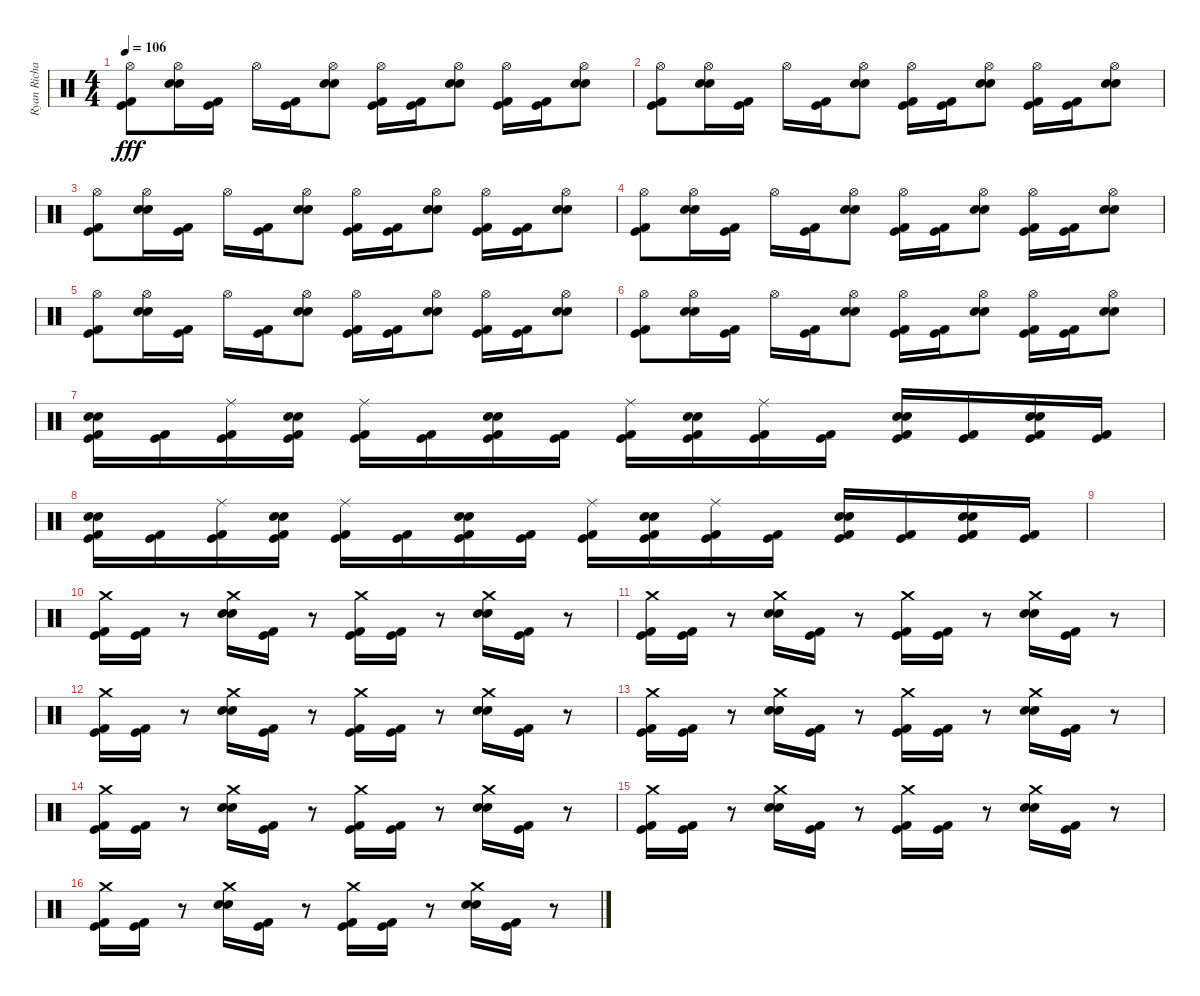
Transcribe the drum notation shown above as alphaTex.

\track ("Ryan Richards" "Ryan Richa") {instrument percussion}
\staff {score}
\articulation defaults
\ts (4 4)
\tempo 106
\clef neutral
\ks c
("Kick (hit)" "Hi-Hat (open)" "Kick (hit) 2").8{dy fff} ("Hi-Hat (open)" "Snare (hit) 2" "Electric Snare (hit)").16 ("Kick (hit)" "Kick (hit) 2").16 "Hi-Hat (open)".16 ("Kick (hit)" "Kick (hit) 2").16 ("Hi-Hat (open)" "Snare (hit) 2" "Electric Snare (hit)").8 ("Kick (hit)" "Hi-Hat (open)" "Kick (hit) 2").16 ("Kick (hit)" "Kick (hit) 2").16 ("Hi-Hat (open)" "Snare (hit) 2" "Electric Snare (hit)").8 ("Kick (hit)" "Hi-Hat (open)" "Kick (hit) 2").16 ("Kick (hit)" "Kick (hit) 2").16 ("Hi-Hat (open)" "Snare (hit) 2" "Electric Snare (hit)").8 |
("Kick (hit)" "Hi-Hat (open)" "Kick (hit) 2").8 ("Hi-Hat (open)" "Snare (hit) 2" "Electric Snare (hit)").16 ("Kick (hit)" "Kick (hit) 2").16 "Hi-Hat (open)".16 ("Kick (hit)" "Kick (hit) 2").16 ("Hi-Hat (open)" "Snare (hit) 2" "Electric Snare (hit)").8 ("Kick (hit)" "Hi-Hat (open)" "Kick (hit) 2").16 ("Kick (hit)" "Kick (hit) 2").16 ("Hi-Hat (open)" "Snare (hit) 2" "Electric Snare (hit)").8 ("Kick (hit)" "Hi-Hat (open)" "Kick (hit) 2").16 ("Kick (hit)" "Kick (hit) 2").16 ("Hi-Hat (open)" "Snare (hit) 2" "Electric Snare (hit)").8 |
("Kick (hit)" "Hi-Hat (open)" "Kick (hit) 2").8 ("Hi-Hat (open)" "Snare (hit) 2" "Electric Snare (hit)").16 ("Kick (hit)" "Kick (hit) 2").16 "Hi-Hat (open)".16 ("Kick (hit)" "Kick (hit) 2").16 ("Hi-Hat (open)" "Snare (hit) 2" "Electric Snare (hit)").8 ("Kick (hit)" "Hi-Hat (open)" "Kick (hit) 2").16 ("Kick (hit)" "Kick (hit) 2").16 ("Hi-Hat (open)" "Snare (hit) 2" "Electric Snare (hit)").8 ("Kick (hit)" "Hi-Hat (open)" "Kick (hit) 2").16 ("Kick (hit)" "Kick (hit) 2").16 ("Hi-Hat (open)" "Snare (hit) 2" "Electric Snare (hit)").8 |
("Kick (hit)" "Hi-Hat (open)" "Kick (hit) 2").8 ("Hi-Hat (open)" "Snare (hit) 2" "Electric Snare (hit)").16 ("Kick (hit)" "Kick (hit) 2").16 "Hi-Hat (open)".16 ("Kick (hit)" "Kick (hit) 2").16 ("Hi-Hat (open)" "Snare (hit) 2" "Electric Snare (hit)").8 ("Kick (hit)" "Hi-Hat (open)" "Kick (hit) 2").16 ("Kick (hit)" "Kick (hit) 2").16 ("Hi-Hat (open)" "Snare (hit) 2" "Electric Snare (hit)").8 ("Kick (hit)" "Hi-Hat (open)" "Kick (hit) 2").16 ("Kick (hit)" "Kick (hit) 2").16 ("Hi-Hat (open)" "Snare (hit) 2" "Electric Snare (hit)").8 |
("Kick (hit)" "Hi-Hat (open)" "Kick (hit) 2").8 ("Hi-Hat (open)" "Snare (hit) 2" "Electric Snare (hit)").16 ("Kick (hit)" "Kick (hit) 2").16 "Hi-Hat (open)".16 ("Kick (hit)" "Kick (hit) 2").16 ("Hi-Hat (open)" "Snare (hit) 2" "Electric Snare (hit)").8 ("Kick (hit)" "Hi-Hat (open)" "Kick (hit) 2").16 ("Kick (hit)" "Kick (hit) 2").16 ("Hi-Hat (open)" "Snare (hit) 2" "Electric Snare (hit)").8 ("Kick (hit)" "Hi-Hat (open)" "Kick (hit) 2").16 ("Kick (hit)" "Kick (hit) 2").16 ("Hi-Hat (open)" "Snare (hit) 2" "Electric Snare (hit)").8 |
("Kick (hit)" "Hi-Hat (open)" "Kick (hit) 2").8 ("Hi-Hat (open)" "Snare (hit) 2" "Electric Snare (hit)").16 ("Kick (hit)" "Kick (hit) 2").16 "Hi-Hat (open)".16 ("Kick (hit)" "Kick (hit) 2").16 ("Hi-Hat (open)" "Snare (hit) 2" "Electric Snare (hit)").8 ("Kick (hit)" "Hi-Hat (open)" "Kick (hit) 2").16 ("Kick (hit)" "Kick (hit) 2").16 ("Hi-Hat (open)" "Snare (hit) 2" "Electric Snare (hit)").8 ("Kick (hit)" "Hi-Hat (open)" "Kick (hit) 2").16 ("Kick (hit)" "Kick (hit) 2").16 ("Hi-Hat (open)" "Snare (hit) 2" "Electric Snare (hit)").8 |
("Kick (hit)" "Snare (hit) 2" "Electric Snare (hit)" "Kick (hit) 2").16 ("Kick (hit)" "Kick (hit) 2").16 ("Kick (hit)" "Ride (middle)" "Kick (hit) 2").16 ("Kick (hit)" "Snare (hit) 2" "Electric Snare (hit)" "Kick (hit) 2").16 ("Kick (hit)" "Ride (middle)" "Kick (hit) 2").16 ("Kick (hit)" "Kick (hit) 2").16 ("Kick (hit)" "Snare (hit) 2" "Electric Snare (hit)" "Kick (hit) 2").16 ("Kick (hit)" "Kick (hit) 2").16 ("Kick (hit)" "Ride (middle)" "Kick (hit) 2").16 ("Kick (hit)" "Snare (hit) 2" "Electric Snare (hit)" "Kick (hit) 2").16 ("Kick (hit)" "Ride (middle)" "Kick (hit) 2").16 ("Kick (hit)" "Kick (hit) 2").16 ("Kick (hit)" "Snare (hit) 2" "Electric Snare (hit)" "Kick (hit) 2").16 ("Kick (hit)" "Kick (hit) 2").16 ("Kick (hit)" "Snare (hit) 2" "Electric Snare (hit)" "Kick (hit) 2").16 ("Kick (hit)" "Kick (hit) 2").16 |
("Kick (hit)" "Snare (hit) 2" "Electric Snare (hit)" "Kick (hit) 2").16 ("Kick (hit)" "Kick (hit) 2").16 ("Kick (hit)" "Ride (middle)" "Kick (hit) 2").16 ("Kick (hit)" "Snare (hit) 2" "Electric Snare (hit)" "Kick (hit) 2").16 ("Kick (hit)" "Ride (middle)" "Kick (hit) 2").16 ("Kick (hit)" "Kick (hit) 2").16 ("Kick (hit)" "Snare (hit) 2" "Electric Snare (hit)" "Kick (hit) 2").16 ("Kick (hit)" "Kick (hit) 2").16 ("Kick (hit)" "Ride (middle)" "Kick (hit) 2").16 ("Kick (hit)" "Snare (hit) 2" "Electric Snare (hit)" "Kick (hit) 2").16 ("Kick (hit)" "Ride (middle)" "Kick (hit) 2").16 ("Kick (hit)" "Kick (hit) 2").16 ("Kick (hit)" "Snare (hit) 2" "Electric Snare (hit)" "Kick (hit) 2").16 ("Kick (hit)" "Kick (hit) 2").16 ("Kick (hit)" "Snare (hit) 2" "Electric Snare (hit)" "Kick (hit) 2").16 ("Kick (hit)" "Kick (hit) 2").16 |
|
("Kick (hit)" "Crash medium (hit)" "Kick (hit) 2").16 ("Kick (hit)" "Kick (hit) 2").16 r.8 ("Crash medium (hit)" "Snare (hit) 2" "Electric Snare (hit)").16 ("Kick (hit)" "Kick (hit) 2").16 r.8 ("Kick (hit)" "Crash medium (hit)" "Kick (hit) 2").16 ("Kick (hit)" "Kick (hit) 2").16 r.8 ("Crash medium (hit)" "Snare (hit) 2" "Electric Snare (hit)").16 ("Kick (hit)" "Kick (hit) 2").16 r.8 |
("Kick (hit)" "Crash medium (hit)" "Kick (hit) 2").16 ("Kick (hit)" "Kick (hit) 2").16 r.8 ("Crash medium (hit)" "Snare (hit) 2" "Electric Snare (hit)").16 ("Kick (hit)" "Kick (hit) 2").16 r.8 ("Kick (hit)" "Crash medium (hit)" "Kick (hit) 2").16 ("Kick (hit)" "Kick (hit) 2").16 r.8 ("Crash medium (hit)" "Snare (hit) 2" "Electric Snare (hit)").16 ("Kick (hit)" "Kick (hit) 2").16 r.8 |
("Kick (hit)" "Crash medium (hit)" "Kick (hit) 2").16 ("Kick (hit)" "Kick (hit) 2").16 r.8 ("Crash medium (hit)" "Snare (hit) 2" "Electric Snare (hit)").16 ("Kick (hit)" "Kick (hit) 2").16 r.8 ("Kick (hit)" "Crash medium (hit)" "Kick (hit) 2").16 ("Kick (hit)" "Kick (hit) 2").16 r.8 ("Crash medium (hit)" "Snare (hit) 2" "Electric Snare (hit)").16 ("Kick (hit)" "Kick (hit) 2").16 r.8 |
("Kick (hit)" "Crash medium (hit)" "Kick (hit) 2").16 ("Kick (hit)" "Kick (hit) 2").16 r.8 ("Crash medium (hit)" "Snare (hit) 2" "Electric Snare (hit)").16 ("Kick (hit)" "Kick (hit) 2").16 r.8 ("Kick (hit)" "Crash medium (hit)" "Kick (hit) 2").16 ("Kick (hit)" "Kick (hit) 2").16 r.8 ("Crash medium (hit)" "Snare (hit) 2" "Electric Snare (hit)").16 ("Kick (hit)" "Kick (hit) 2").16 r.8 |
("Kick (hit)" "Crash medium (hit)" "Kick (hit) 2").16 ("Kick (hit)" "Kick (hit) 2").16 r.8 ("Crash medium (hit)" "Snare (hit) 2" "Electric Snare (hit)").16 ("Kick (hit)" "Kick (hit) 2").16 r.8 ("Kick (hit)" "Crash medium (hit)" "Kick (hit) 2").16 ("Kick (hit)" "Kick (hit) 2").16 r.8 ("Crash medium (hit)" "Snare (hit) 2" "Electric Snare (hit)").16 ("Kick (hit)" "Kick (hit) 2").16 r.8 |
("Kick (hit)" "Crash medium (hit)" "Kick (hit) 2").16 ("Kick (hit)" "Kick (hit) 2").16 r.8 ("Crash medium (hit)" "Snare (hit) 2" "Electric Snare (hit)").16 ("Kick (hit)" "Kick (hit) 2").16 r.8 ("Kick (hit)" "Crash medium (hit)" "Kick (hit) 2").16 ("Kick (hit)" "Kick (hit) 2").16 r.8 ("Crash medium (hit)" "Snare (hit) 2" "Electric Snare (hit)").16 ("Kick (hit)" "Kick (hit) 2").16 r.8 |
("Kick (hit)" "Crash medium (hit)" "Kick (hit) 2").16 ("Kick (hit)" "Kick (hit) 2").16 r.8 ("Crash medium (hit)" "Snare (hit) 2" "Electric Snare (hit)").16 ("Kick (hit)" "Kick (hit) 2").16 r.8 ("Kick (hit)" "Crash medium (hit)" "Kick (hit) 2").16 ("Kick (hit)" "Kick (hit) 2").16 r.8 ("Crash medium (hit)" "Snare (hit) 2" "Electric Snare (hit)").16 ("Kick (hit)" "Kick (hit) 2").16 r.8
